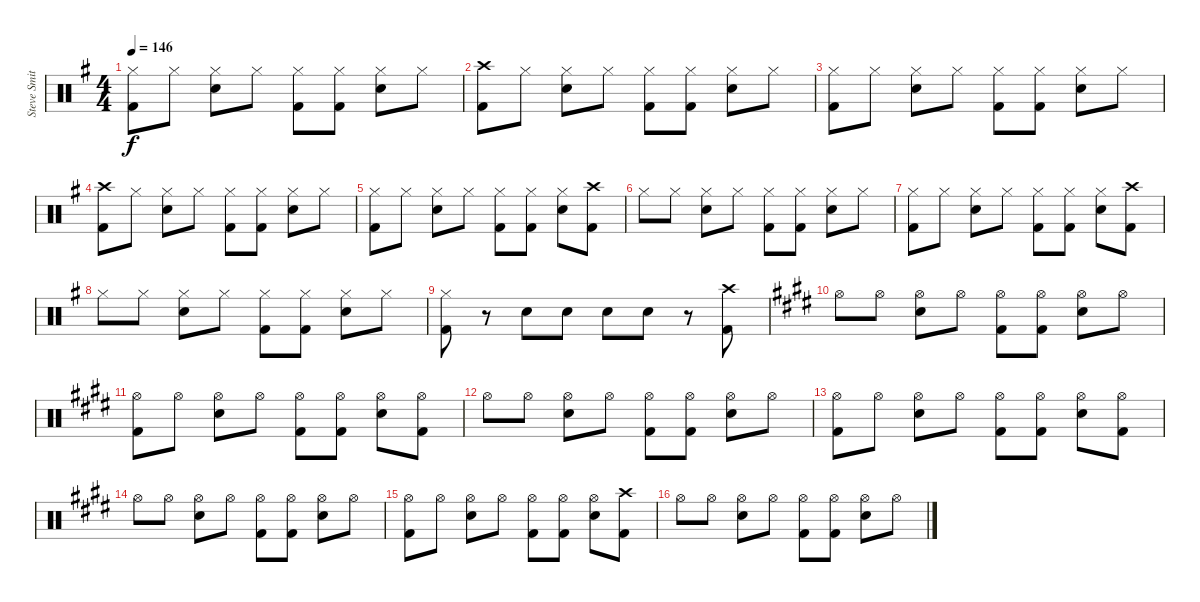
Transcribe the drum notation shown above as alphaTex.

\track ("Steve Smith" "Steve Smit") {instrument percussion}
\staff {score}
\articulation defaults
\ts (4 4)
\tempo 146
\clef neutral
\ks g
("Hi-Hat (closed)" "Kick (hit) 2").8{dy f} "Hi-Hat (closed)".8 ("Hi-Hat (closed)" "Snare (hit) 2").8 "Hi-Hat (closed)".8 ("Hi-Hat (closed)" "Kick (hit) 2").8 ("Hi-Hat (closed)" "Kick (hit) 2").8 ("Hi-Hat (closed)" "Snare (hit) 2").8 "Hi-Hat (closed)".8 |
("Crash high (hit)" "Kick (hit) 2").8 "Hi-Hat (closed)".8 ("Hi-Hat (closed)" "Snare (hit) 2").8 "Hi-Hat (closed)".8 ("Hi-Hat (closed)" "Kick (hit) 2").8 ("Hi-Hat (closed)" "Kick (hit) 2").8 ("Hi-Hat (closed)" "Snare (hit) 2").8 "Hi-Hat (closed)".8 |
("Hi-Hat (closed)" "Kick (hit) 2").8 "Hi-Hat (closed)".8 ("Hi-Hat (closed)" "Snare (hit) 2").8 "Hi-Hat (closed)".8 ("Hi-Hat (closed)" "Kick (hit) 2").8 ("Hi-Hat (closed)" "Kick (hit) 2").8 ("Hi-Hat (closed)" "Snare (hit) 2").8 "Hi-Hat (closed)".8 |
("Crash high (hit)" "Kick (hit) 2").8 "Hi-Hat (closed)".8 ("Hi-Hat (closed)" "Snare (hit) 2").8 "Hi-Hat (closed)".8 ("Hi-Hat (closed)" "Kick (hit) 2").8 ("Hi-Hat (closed)" "Kick (hit) 2").8 ("Hi-Hat (closed)" "Snare (hit) 2").8 "Hi-Hat (closed)".8 |
("Hi-Hat (closed)" "Kick (hit) 2").8 "Hi-Hat (closed)".8 ("Hi-Hat (closed)" "Snare (hit) 2").8 "Hi-Hat (closed)".8 ("Hi-Hat (closed)" "Kick (hit) 2").8 ("Hi-Hat (closed)" "Kick (hit) 2").8 ("Hi-Hat (closed)" "Snare (hit) 2").8 ("Crash high (hit)" "Kick (hit) 2").8 |
"Hi-Hat (closed)".8 "Hi-Hat (closed)".8 ("Hi-Hat (closed)" "Snare (hit) 2").8 "Hi-Hat (closed)".8 ("Hi-Hat (closed)" "Kick (hit) 2").8 ("Hi-Hat (closed)" "Kick (hit) 2").8 ("Hi-Hat (closed)" "Snare (hit) 2").8 "Hi-Hat (closed)".8 |
("Hi-Hat (closed)" "Kick (hit) 2").8 "Hi-Hat (closed)".8 ("Hi-Hat (closed)" "Snare (hit) 2").8 "Hi-Hat (closed)".8 ("Hi-Hat (closed)" "Kick (hit) 2").8 ("Hi-Hat (closed)" "Kick (hit) 2").8 ("Hi-Hat (closed)" "Snare (hit) 2").8 ("Crash high (hit)" "Kick (hit) 2").8 |
"Hi-Hat (closed)".8 "Hi-Hat (closed)".8 ("Hi-Hat (closed)" "Snare (hit) 2").8 "Hi-Hat (closed)".8 ("Hi-Hat (closed)" "Kick (hit) 2").8 ("Hi-Hat (closed)" "Kick (hit) 2").8 ("Hi-Hat (closed)" "Snare (hit) 2").8 "Hi-Hat (closed)".8 |
("Hi-Hat (closed)" "Kick (hit) 2").8 r.8 "Snare (hit) 2".8 "Snare (hit) 2".8 "Snare (hit) 2".8 "Snare (hit) 2".8 r.8 ("Crash high (hit)" "Kick (hit) 2").8 |
\ks e "Hi-Hat (open)".8 "Hi-Hat (open)".8
("Hi-Hat (open)" "Snare (hit) 2").8 "Hi-Hat (open)".8 ("Hi-Hat (open)" "Kick (hit) 2").8 ("Hi-Hat (open)" "Kick (hit) 2").8 ("Hi-Hat (open)" "Snare (hit) 2").8 "Hi-Hat (open)".8 |
("Hi-Hat (open)" "Kick (hit) 2").8 "Hi-Hat (open)".8 ("Hi-Hat (open)" "Snare (hit) 2").8 "Hi-Hat (open)".8 ("Hi-Hat (open)" "Kick (hit) 2").8 ("Hi-Hat (open)" "Kick (hit) 2").8 ("Hi-Hat (open)" "Snare (hit) 2").8 ("Hi-Hat (open)" "Kick (hit) 2").8 |
"Hi-Hat (open)".8 "Hi-Hat (open)".8 ("Hi-Hat (open)" "Snare (hit) 2").8 "Hi-Hat (open)".8 ("Hi-Hat (open)" "Kick (hit) 2").8 ("Hi-Hat (open)" "Kick (hit) 2").8 ("Hi-Hat (open)" "Snare (hit) 2").8 "Hi-Hat (open)".8 |
("Hi-Hat (open)" "Kick (hit) 2").8 "Hi-Hat (open)".8 ("Hi-Hat (open)" "Snare (hit) 2").8 "Hi-Hat (open)".8 ("Hi-Hat (open)" "Kick (hit) 2").8 ("Hi-Hat (open)" "Kick (hit) 2").8 ("Hi-Hat (open)" "Snare (hit) 2").8 ("Hi-Hat (open)" "Kick (hit) 2").8 |
"Hi-Hat (open)".8 "Hi-Hat (open)".8 ("Hi-Hat (open)" "Snare (hit) 2").8 "Hi-Hat (open)".8 ("Hi-Hat (open)" "Kick (hit) 2").8 ("Hi-Hat (open)" "Kick (hit) 2").8 ("Hi-Hat (open)" "Snare (hit) 2").8 "Hi-Hat (open)".8 |
("Hi-Hat (open)" "Kick (hit) 2").8 "Hi-Hat (open)".8 ("Hi-Hat (open)" "Snare (hit) 2").8 "Hi-Hat (open)".8 ("Hi-Hat (open)" "Kick (hit) 2").8 ("Hi-Hat (open)" "Kick (hit) 2").8 ("Hi-Hat (open)" "Snare (hit) 2").8 ("Crash high (hit)" "Kick (hit) 2").8 |
"Hi-Hat (open)".8 "Hi-Hat (open)".8 ("Hi-Hat (open)" "Snare (hit) 2").8 "Hi-Hat (open)".8 ("Hi-Hat (open)" "Kick (hit) 2").8 ("Hi-Hat (open)" "Kick (hit) 2").8 ("Hi-Hat (open)" "Snare (hit) 2").8 "Hi-Hat (open)".8
